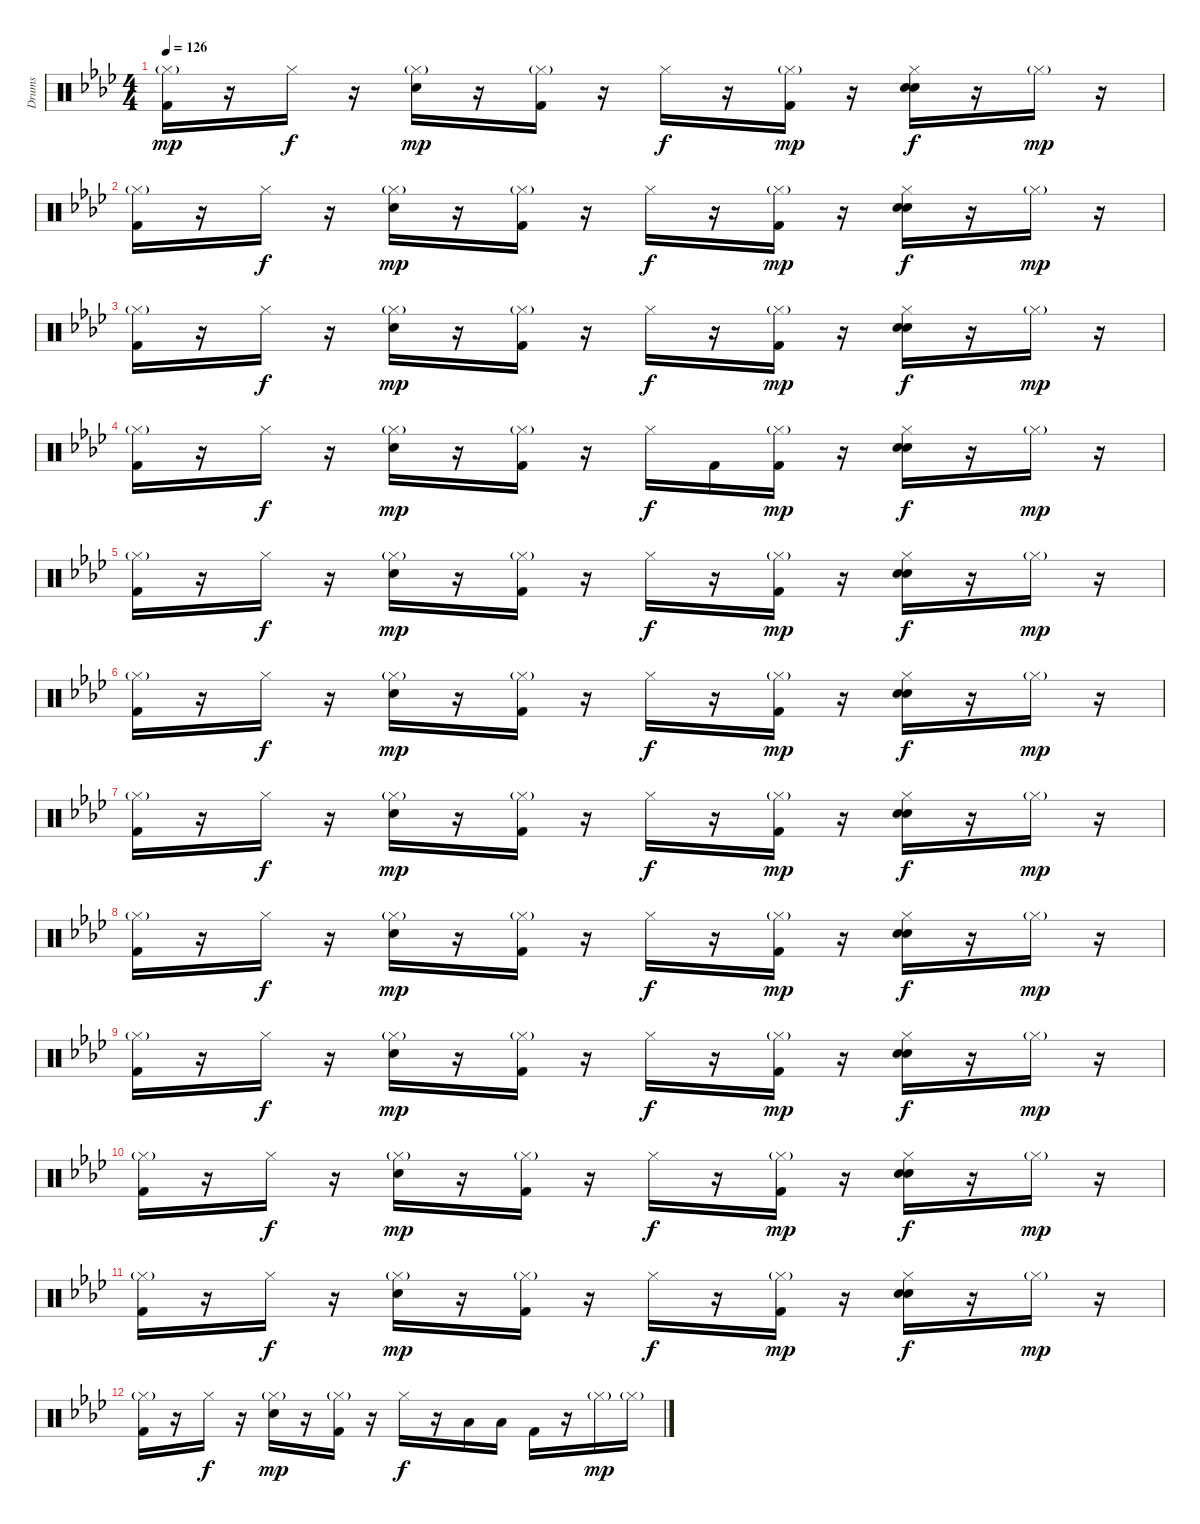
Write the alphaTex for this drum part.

\track ("Drums" "Drums") {instrument percussion}
\staff {score}
\articulation defaults
\ts (4 4)
\tempo 126
\clef neutral
\ks ab
("Hi-Hat (closed)"{g} "Kick (hit) 2").16{dy mp} r.16 "Hi-Hat (closed)".16{dy f} r.16 ("Hi-Hat (closed)"{g} "Snare (hit) 2").16{dy mp} r.16 ("Hi-Hat (closed)"{g} "Kick (hit) 2").16 r.16 "Hi-Hat (closed)".16{dy f} r.16 ("Hi-Hat (closed)"{g} "Kick (hit) 2").16{dy mp} r.16 ("Hi-Hat (closed)" "Hand Clap (hit)" "Snare (hit) 2").16{dy f} r.16 "Hi-Hat (closed)"{g}.16{dy mp} r.16 |
("Hi-Hat (closed)"{g} "Kick (hit) 2").16 r.16 "Hi-Hat (closed)".16{dy f} r.16 ("Hi-Hat (closed)"{g} "Snare (hit) 2").16{dy mp} r.16 ("Hi-Hat (closed)"{g} "Kick (hit) 2").16 r.16 "Hi-Hat (closed)".16{dy f} r.16 ("Hi-Hat (closed)"{g} "Kick (hit) 2").16{dy mp} r.16 ("Hi-Hat (closed)" "Hand Clap (hit)" "Snare (hit) 2").16{dy f} r.16 "Hi-Hat (closed)"{g}.16{dy mp} r.16 |
("Hi-Hat (closed)"{g} "Kick (hit) 2").16 r.16 "Hi-Hat (closed)".16{dy f} r.16 ("Hi-Hat (closed)"{g} "Snare (hit) 2").16{dy mp} r.16 ("Hi-Hat (closed)"{g} "Kick (hit) 2").16 r.16 "Hi-Hat (closed)".16{dy f} r.16 ("Hi-Hat (closed)"{g} "Kick (hit) 2").16{dy mp} r.16 ("Hi-Hat (closed)" "Hand Clap (hit)" "Snare (hit) 2").16{dy f} r.16 "Hi-Hat (closed)"{g}.16{dy mp} r.16 |
("Hi-Hat (closed)"{g} "Kick (hit) 2").16 r.16 "Hi-Hat (closed)".16{dy f} r.16 ("Hi-Hat (closed)"{g} "Snare (hit) 2").16{dy mp} r.16 ("Hi-Hat (closed)"{g} "Kick (hit) 2").16 r.16 "Hi-Hat (closed)".16{dy f} "Kick (hit) 2".16 ("Hi-Hat (closed)"{g} "Kick (hit) 2").16{dy mp} r.16 ("Hi-Hat (closed)" "Hand Clap (hit)" "Snare (hit) 2").16{dy f} r.16 "Hi-Hat (closed)"{g}.16{dy mp} r.16 |
("Hi-Hat (closed)"{g} "Kick (hit) 2").16 r.16 "Hi-Hat (closed)".16{dy f} r.16 ("Hi-Hat (closed)"{g} "Snare (hit) 2").16{dy mp} r.16 ("Hi-Hat (closed)"{g} "Kick (hit) 2").16 r.16 "Hi-Hat (closed)".16{dy f} r.16 ("Hi-Hat (closed)"{g} "Kick (hit) 2").16{dy mp} r.16 ("Hi-Hat (closed)" "Hand Clap (hit)" "Snare (hit) 2").16{dy f} r.16 "Hi-Hat (closed)"{g}.16{dy mp} r.16 |
("Hi-Hat (closed)"{g} "Kick (hit) 2").16 r.16 "Hi-Hat (closed)".16{dy f} r.16 ("Hi-Hat (closed)"{g} "Snare (hit) 2").16{dy mp} r.16 ("Hi-Hat (closed)"{g} "Kick (hit) 2").16 r.16 "Hi-Hat (closed)".16{dy f} r.16 ("Hi-Hat (closed)"{g} "Kick (hit) 2").16{dy mp} r.16 ("Hi-Hat (closed)" "Hand Clap (hit)" "Snare (hit) 2").16{dy f} r.16 "Hi-Hat (closed)"{g}.16{dy mp} r.16 |
("Hi-Hat (closed)"{g} "Kick (hit) 2").16 r.16 "Hi-Hat (closed)".16{dy f} r.16 ("Hi-Hat (closed)"{g} "Snare (hit) 2").16{dy mp} r.16 ("Hi-Hat (closed)"{g} "Kick (hit) 2").16 r.16 "Hi-Hat (closed)".16{dy f} r.16 ("Hi-Hat (closed)"{g} "Kick (hit) 2").16{dy mp} r.16 ("Hi-Hat (closed)" "Hand Clap (hit)" "Snare (hit) 2").16{dy f} r.16 "Hi-Hat (closed)"{g}.16{dy mp} r.16 |
("Hi-Hat (closed)"{g} "Kick (hit) 2").16 r.16 "Hi-Hat (closed)".16{dy f} r.16 ("Hi-Hat (closed)"{g} "Snare (hit) 2").16{dy mp} r.16 ("Hi-Hat (closed)"{g} "Kick (hit) 2").16 r.16 "Hi-Hat (closed)".16{dy f} r.16 ("Hi-Hat (closed)"{g} "Kick (hit) 2").16{dy mp} r.16 ("Hi-Hat (closed)" "Hand Clap (hit)" "Snare (hit) 2").16{dy f} r.16 "Hi-Hat (closed)"{g}.16{dy mp} r.16 |
("Hi-Hat (closed)"{g} "Kick (hit) 2").16 r.16 "Hi-Hat (closed)".16{dy f} r.16 ("Hi-Hat (closed)"{g} "Snare (hit) 2").16{dy mp} r.16 ("Hi-Hat (closed)"{g} "Kick (hit) 2").16 r.16 "Hi-Hat (closed)".16{dy f} r.16 ("Hi-Hat (closed)"{g} "Kick (hit) 2").16{dy mp} r.16 ("Hi-Hat (closed)" "Hand Clap (hit)" "Snare (hit) 2").16{dy f} r.16 "Hi-Hat (closed)"{g}.16{dy mp} r.16 |
("Hi-Hat (closed)"{g} "Kick (hit) 2").16 r.16 "Hi-Hat (closed)".16{dy f} r.16 ("Hi-Hat (closed)"{g} "Snare (hit) 2").16{dy mp} r.16 ("Hi-Hat (closed)"{g} "Kick (hit) 2").16 r.16 "Hi-Hat (closed)".16{dy f} r.16 ("Hi-Hat (closed)"{g} "Kick (hit) 2").16{dy mp} r.16 ("Hi-Hat (closed)" "Hand Clap (hit)" "Snare (hit) 2").16{dy f} r.16 "Hi-Hat (closed)"{g}.16{dy mp} r.16 |
("Hi-Hat (closed)"{g} "Kick (hit) 2").16 r.16 "Hi-Hat (closed)".16{dy f} r.16 ("Hi-Hat (closed)"{g} "Snare (hit) 2").16{dy mp} r.16 ("Hi-Hat (closed)"{g} "Kick (hit) 2").16 r.16 "Hi-Hat (closed)".16{dy f} r.16 ("Hi-Hat (closed)"{g} "Kick (hit) 2").16{dy mp} r.16 ("Hi-Hat (closed)" "Hand Clap (hit)" "Snare (hit) 2").16{dy f} r.16 "Hi-Hat (closed)"{g}.16{dy mp} r.16 |
("Hi-Hat (closed)"{g} "Kick (hit) 2").16 r.16 "Hi-Hat (closed)".16{dy f} r.16 ("Hi-Hat (closed)"{g} "Snare (hit) 2").16{dy mp} r.16 ("Hi-Hat (closed)"{g} "Kick (hit) 2").16 r.16 "Hi-Hat (closed)".16{dy f} r.16 "Low Tom (hit)".16 "Low Tom (hit)".16 "Kick (hit) 2".16 r.16 "Hi-Hat (closed)"{g}.16{dy mp} "Hi-Hat (closed)"{g}.16
